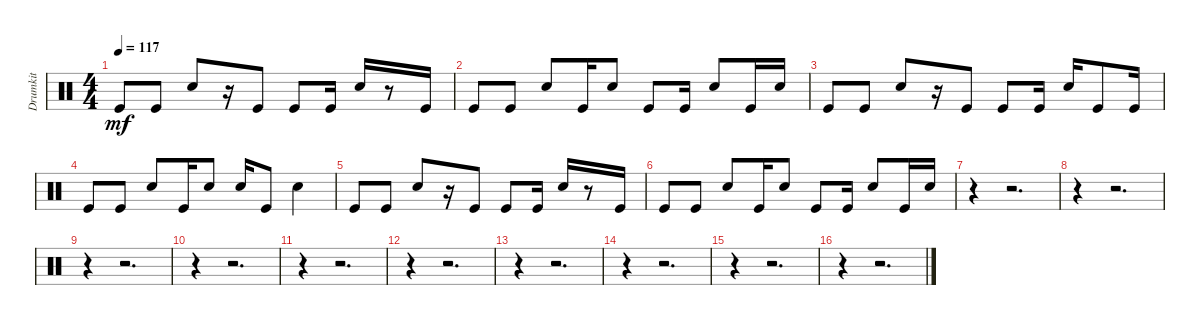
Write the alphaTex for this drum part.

\track ("Drumkit" "Drumkit") {instrument percussion}
\staff {score}
\articulation defaults
\ts (4 4)
\tempo 117
\clef neutral
\ks c "Kick (hit)".8{dy mf} "Kick (hit)".8 "Snare (hit) 2".8
r.16 "Kick (hit)".8 "Kick (hit)".8 "Kick (hit)".16 "Snare (hit) 2".16 r.8 "Kick (hit)".16 |
"Kick (hit)".8 "Kick (hit)".8 "Snare (hit) 2".8 "Kick (hit)".16 "Snare (hit) 2".8 "Kick (hit)".8 "Kick (hit)".16 "Snare (hit) 2".8 "Kick (hit)".16 "Snare (hit) 2".16 |
"Kick (hit)".8 "Kick (hit)".8 "Snare (hit) 2".8 r.16 "Kick (hit)".8 "Kick (hit)".8 "Kick (hit)".16 "Snare (hit) 2".16 "Kick (hit)".8 "Kick (hit)".16 |
"Kick (hit)".8 "Kick (hit)".8 "Snare (hit) 2".8 "Kick (hit)".16 "Snare (hit) 2".8 "Snare (hit) 2".16 "Kick (hit)".8 "Snare (hit) 2".4 |
"Kick (hit)".8 "Kick (hit)".8 "Snare (hit) 2".8 r.16 "Kick (hit)".8 "Kick (hit)".8 "Kick (hit)".16 "Snare (hit) 2".16 r.8 "Kick (hit)".16 |
"Kick (hit)".8 "Kick (hit)".8 "Snare (hit) 2".8 "Kick (hit)".16 "Snare (hit) 2".8 "Kick (hit)".8 "Kick (hit)".16 "Snare (hit) 2".8 "Kick (hit)".16 "Snare (hit) 2".16 |
r.4 r.2{d} |
r.4 r.2{d} |
r.4 r.2{d} |
r.4 r.2{d} |
r.4 r.2{d} |
r.4 r.2{d} |
r.4 r.2{d} |
r.4 r.2{d} |
r.4 r.2{d} |
r.4 r.2{d}
